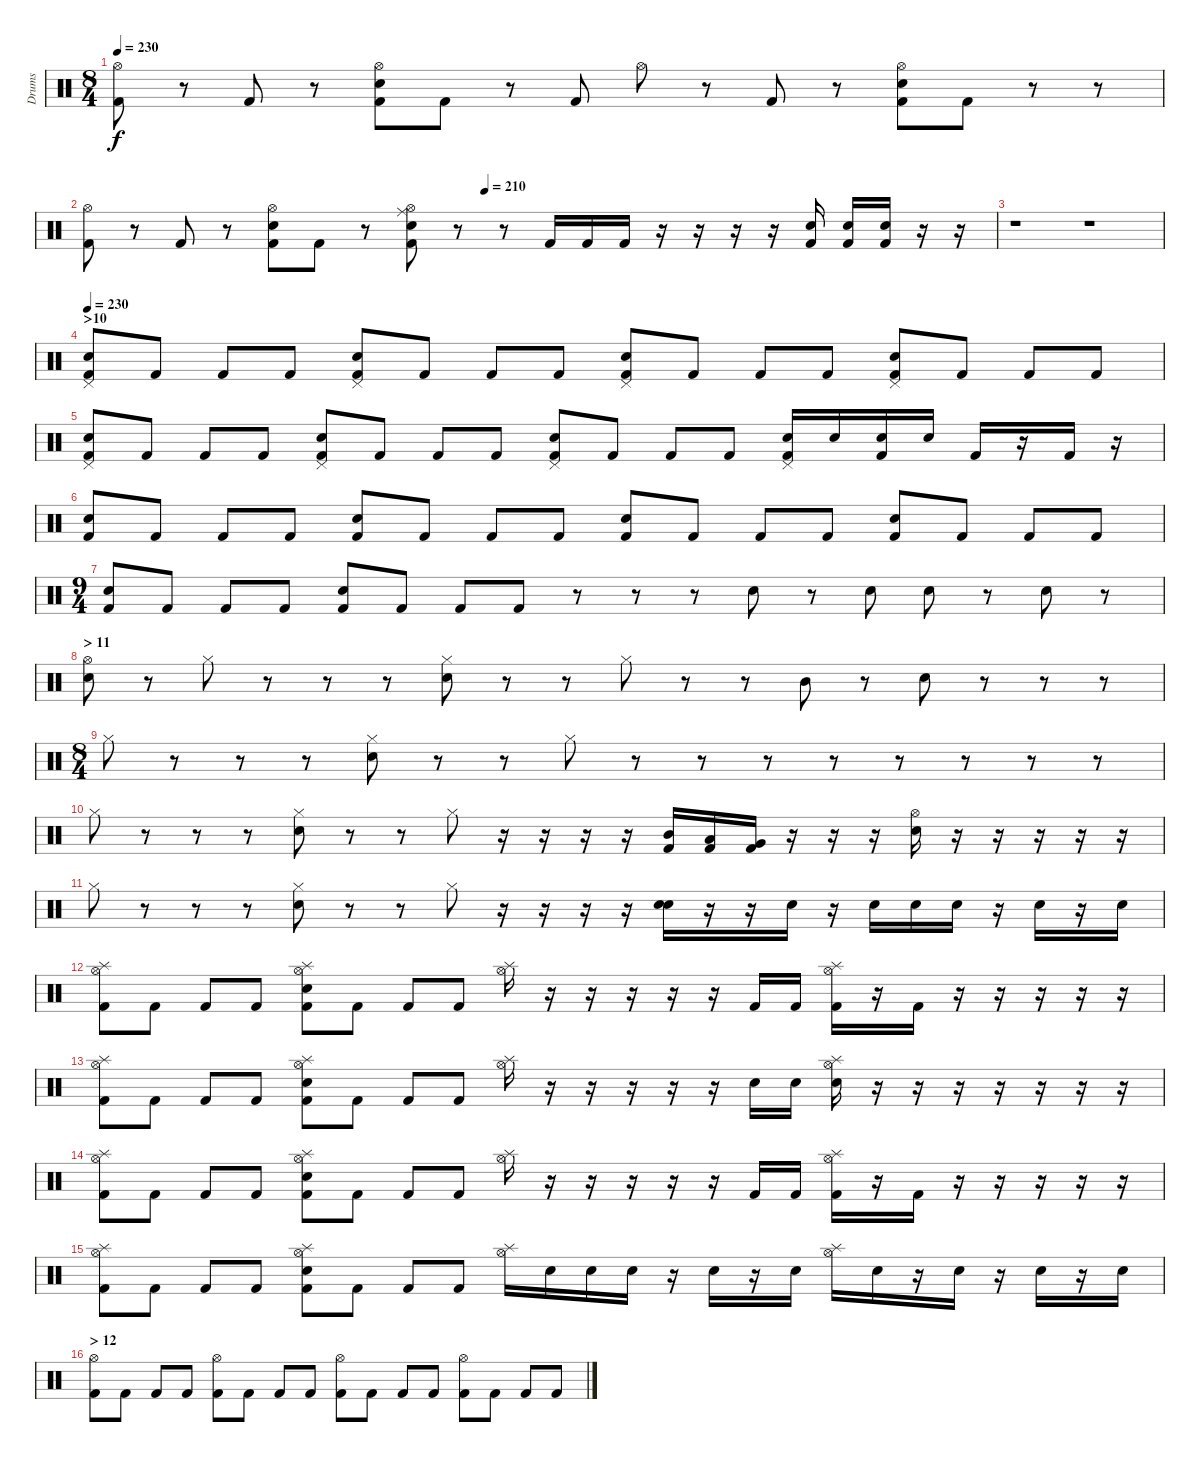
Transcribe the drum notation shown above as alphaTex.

\track ("Drums" "Drums") {instrument percussion}
\staff {score}
\articulation defaults
\ts (8 4)
\tempo 230
\clef neutral
\ks c
("Hi-Hat (open)" "Kick (hit) 2").8{dy f} r.8 "Kick (hit) 2".8 r.8 ("Hi-Hat (open)" "Electric Snare (hit)" "Kick (hit) 2").8 "Kick (hit) 2".8 r.8 "Kick (hit) 2".8 "Hi-Hat (open)".8 r.8 "Kick (hit) 2".8 r.8 ("Hi-Hat (open)" "Electric Snare (hit)" "Kick (hit) 2").8 "Kick (hit) 2".8 r.8 r.8 |
\tempo (210 0.4375)
("Hi-Hat (open)" "Kick (hit) 2").8 r.8 "Kick (hit) 2".8 r.8 ("Hi-Hat (open)" "Electric Snare (hit)" "Kick (hit) 2").8 "Kick (hit) 2".8 r.8 ("Hi-Hat (open)" "Electric Snare (hit)" "Ride (middle)" "Kick (hit) 2").8 r.8 r.8 "Kick (hit) 2".16 "Kick (hit) 2".16 "Kick (hit) 2".16 r.16 r.16 r.16 r.16 ("Electric Snare (hit)" "Kick (hit) 2").16 ("Electric Snare (hit)" "Kick (hit) 2").16 ("Electric Snare (hit)" "Kick (hit) 2").16 r.16 r.16 |
r.1 r.1 |
\section ("" ">10")
\tempo 230
("Electric Snare (hit)" "Pedal Hi-Hat (hit)" "Kick (hit) 2").8 "Kick (hit) 2".8 "Kick (hit) 2".8 "Kick (hit) 2".8 ("Electric Snare (hit)" "Pedal Hi-Hat (hit)" "Kick (hit) 2").8 "Kick (hit) 2".8 "Kick (hit) 2".8 "Kick (hit) 2".8 ("Electric Snare (hit)" "Pedal Hi-Hat (hit)" "Kick (hit) 2").8 "Kick (hit) 2".8 "Kick (hit) 2".8 "Kick (hit) 2".8 ("Electric Snare (hit)" "Pedal Hi-Hat (hit)" "Kick (hit) 2").8 "Kick (hit) 2".8 "Kick (hit) 2".8 "Kick (hit) 2".8 |
("Electric Snare (hit)" "Pedal Hi-Hat (hit)" "Kick (hit) 2").8 "Kick (hit) 2".8 "Kick (hit) 2".8 "Kick (hit) 2".8 ("Electric Snare (hit)" "Pedal Hi-Hat (hit)" "Kick (hit) 2").8 "Kick (hit) 2".8 "Kick (hit) 2".8 "Kick (hit) 2".8 ("Electric Snare (hit)" "Pedal Hi-Hat (hit)" "Kick (hit) 2").8 "Kick (hit) 2".8 "Kick (hit) 2".8 "Kick (hit) 2".8 ("Electric Snare (hit)" "Pedal Hi-Hat (hit)" "Kick (hit) 2").16 "Electric Snare (hit)".16 ("Electric Snare (hit)" "Kick (hit) 2").16 "Electric Snare (hit)".16 "Kick (hit) 2".16 r.16 "Kick (hit) 2".16 r.16 |
("Electric Snare (hit)" "Kick (hit) 2").8 "Kick (hit) 2".8 "Kick (hit) 2".8 "Kick (hit) 2".8 ("Electric Snare (hit)" "Kick (hit) 2").8 "Kick (hit) 2".8 "Kick (hit) 2".8 "Kick (hit) 2".8 ("Electric Snare (hit)" "Kick (hit) 2").8 "Kick (hit) 2".8 "Kick (hit) 2".8 "Kick (hit) 2".8 ("Electric Snare (hit)" "Kick (hit) 2").8 "Kick (hit) 2".8 "Kick (hit) 2".8 "Kick (hit) 2".8 |
\ts (9 4)
("Electric Snare (hit)" "Kick (hit) 2").8 "Kick (hit) 2".8 "Kick (hit) 2".8 "Kick (hit) 2".8 ("Electric Snare (hit)" "Kick (hit) 2").8 "Kick (hit) 2".8 "Kick (hit) 2".8 "Kick (hit) 2".8 r.8 r.8 r.8 "Electric Snare (hit)".8 r.8 "Electric Snare (hit)".8 "Electric Snare (hit)".8 r.8 "Electric Snare (hit)".8 r.8 |
\section ("" "> 11")
("Electric Snare (hit)" "Hi-Hat (open)").8 r.8 "Hi-Hat (closed)".8 r.8 r.8 r.8 ("Electric Snare (hit)" "Hi-Hat (closed)").8 r.8 r.8 "Hi-Hat (closed)".8 r.8 r.8 "Mid Tom (hit)".8 r.8 "Electric Snare (hit)".8 r.8 r.8 r.8 |
\ts (8 4)
"Hi-Hat (closed)".8 r.8 r.8 r.8 ("Electric Snare (hit)" "Hi-Hat (closed)").8 r.8 r.8 "Hi-Hat (closed)".8 r.8 r.8 r.8 r.8 r.8 r.8 r.8 r.8 |
"Hi-Hat (closed)".8 r.8 r.8 r.8 ("Electric Snare (hit)" "Hi-Hat (closed)").8 r.8 r.8 "Hi-Hat (closed)".8 r.16 r.16 r.16 r.16 ("Mid Tom (hit)" "Kick (hit) 2").16 ("Low Tom (hit)" "Kick (hit) 2").16 ("Very Low Tom (hit)" "Kick (hit) 2").16 r.16 r.16 r.16 ("Hi-Hat (open)" "Electric Snare (hit)").16 r.16 r.16 r.16 r.16 r.16 |
"Hi-Hat (closed)".8 r.8 r.8 r.8 ("Electric Snare (hit)" "Hi-Hat (closed)").8 r.8 r.8 "Hi-Hat (closed)".8 r.16 r.16 r.16 r.16 ("Electric Snare (hit)" "Electric Snare (hit)").16 r.16 r.16 "Electric Snare (hit)".16 r.16 "Electric Snare (hit)".16 "Electric Snare (hit)".16 "Electric Snare (hit)".16 r.16 "Electric Snare (hit)".16 r.16 "Electric Snare (hit)".16 |
("Hi-Hat (open)" "Splash (hit)" "Kick (hit) 2").8 "Kick (hit) 2".8 "Kick (hit) 2".8 "Kick (hit) 2".8 ("Hi-Hat (open)" "Electric Snare (hit)" "Splash (hit)" "Kick (hit) 2").8 "Kick (hit) 2".8 "Kick (hit) 2".8 "Kick (hit) 2".8 ("Hi-Hat (open)" "Splash (hit)").16 r.16 r.16 r.16 r.16 r.16 "Kick (hit) 2".16 "Kick (hit) 2".16 ("Hi-Hat (open)" "Splash (hit)" "Kick (hit) 2").16 r.16 "Kick (hit) 2".16 r.16 r.16 r.16 r.16 r.16 |
("Hi-Hat (open)" "Splash (hit)" "Kick (hit) 2").8 "Kick (hit) 2".8 "Kick (hit) 2".8 "Kick (hit) 2".8 ("Hi-Hat (open)" "Electric Snare (hit)" "Splash (hit)" "Kick (hit) 2").8 "Kick (hit) 2".8 "Kick (hit) 2".8 "Kick (hit) 2".8 ("Hi-Hat (open)" "Splash (hit)").16 r.16 r.16 r.16 r.16 r.16 "Electric Snare (hit)".16 "Electric Snare (hit)".16 ("Hi-Hat (open)" "Splash (hit)" "Electric Snare (hit)").16 r.16 r.16 r.16 r.16 r.16 r.16 r.16 |
("Hi-Hat (open)" "Splash (hit)" "Kick (hit) 2").8 "Kick (hit) 2".8 "Kick (hit) 2".8 "Kick (hit) 2".8 ("Hi-Hat (open)" "Electric Snare (hit)" "Splash (hit)" "Kick (hit) 2").8 "Kick (hit) 2".8 "Kick (hit) 2".8 "Kick (hit) 2".8 ("Hi-Hat (open)" "Splash (hit)").16 r.16 r.16 r.16 r.16 r.16 "Kick (hit) 2".16 "Kick (hit) 2".16 ("Hi-Hat (open)" "Splash (hit)" "Kick (hit) 2").16 r.16 "Kick (hit) 2".16 r.16 r.16 r.16 r.16 r.16 |
("Hi-Hat (open)" "Splash (hit)" "Kick (hit) 2").8 "Kick (hit) 2".8 "Kick (hit) 2".8 "Kick (hit) 2".8 ("Hi-Hat (open)" "Electric Snare (hit)" "Splash (hit)" "Kick (hit) 2").8 "Kick (hit) 2".8 "Kick (hit) 2".8 "Kick (hit) 2".8 ("Hi-Hat (open)" "Splash (hit)").16 "Electric Snare (hit)".16 "Electric Snare (hit)".16 "Electric Snare (hit)".16 r.16 "Electric Snare (hit)".16 r.16 "Electric Snare (hit)".16 ("Hi-Hat (open)" "Splash (hit)").16 "Electric Snare (hit)".16 r.16 "Electric Snare (hit)".16 r.16 "Electric Snare (hit)".16 r.16 "Electric Snare (hit)".16 |
\section ("" "> 12")
("Hi-Hat (open)" "Kick (hit) 2").8 "Kick (hit) 2".8 "Kick (hit) 2".8 "Kick (hit) 2".8 ("Hi-Hat (open)" "Kick (hit) 2").8 "Kick (hit) 2".8 "Kick (hit) 2".8 "Kick (hit) 2".8 ("Hi-Hat (open)" "Kick (hit) 2").8 "Kick (hit) 2".8 "Kick (hit) 2".8 "Kick (hit) 2".8 ("Hi-Hat (open)" "Kick (hit) 2").8 "Kick (hit) 2".8 "Kick (hit) 2".8 "Kick (hit) 2".8
